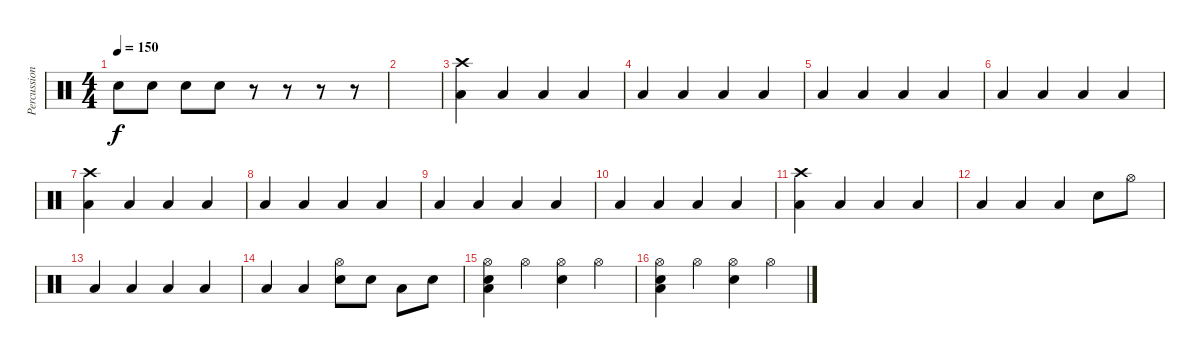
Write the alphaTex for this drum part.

\track ("Percussion" "Percussion") {instrument percussion}
\staff {score}
\articulation defaults
\ts (4 4)
\tempo 150
\clef neutral
\ks c "Electric Snare (hit)".8{dy f} "Electric Snare (hit)".8 "Electric Snare (hit)".8 "Electric Snare (hit)".8
r.8 r.8 r.8 r.8 |
|
("Low Tom (hit)" "Crash high (hit)").4 "Low Tom (hit)".4 "Low Tom (hit)".4 "Low Tom (hit)".4 |
"Low Tom (hit)".4 "Low Tom (hit)".4 "Low Tom (hit)".4 "Low Tom (hit)".4 |
"Low Tom (hit)".4 "Low Tom (hit)".4 "Low Tom (hit)".4 "Low Tom (hit)".4 |
"Low Tom (hit)".4 "Low Tom (hit)".4 "Low Tom (hit)".4 "Low Tom (hit)".4 |
("Low Tom (hit)" "Crash high (hit)").4 "Low Tom (hit)".4 "Low Tom (hit)".4 "Low Tom (hit)".4 |
"Low Tom (hit)".4 "Low Tom (hit)".4 "Low Tom (hit)".4 "Low Tom (hit)".4 |
"Low Tom (hit)".4 "Low Tom (hit)".4 "Low Tom (hit)".4 "Low Tom (hit)".4 |
"Low Tom (hit)".4 "Low Tom (hit)".4 "Low Tom (hit)".4 "Low Tom (hit)".4 |
("Low Tom (hit)" "Crash high (hit)").4 "Low Tom (hit)".4 "Low Tom (hit)".4 "Low Tom (hit)".4 |
"Low Tom (hit)".4 "Low Tom (hit)".4 "Low Tom (hit)".4 "Electric Snare (hit)".8 "Hi-Hat (open)".8 |
"Low Tom (hit)".4 "Low Tom (hit)".4 "Low Tom (hit)".4 "Low Tom (hit)".4 |
"Low Tom (hit)".4 "Low Tom (hit)".4 ("Electric Snare (hit)" "Hi-Hat (open)").8 "Electric Snare (hit)".8 "Low Tom (hit)".8 "Electric Snare (hit)".8 |
("Hi-Hat (open)" "Low Tom (hit)" "Electric Snare (hit)").4 "Hi-Hat (open)".4 ("Hi-Hat (open)" "Electric Snare (hit)").4 "Hi-Hat (open)".4 |
("Hi-Hat (open)" "Low Tom (hit)" "Electric Snare (hit)").4 "Hi-Hat (open)".4 ("Hi-Hat (open)" "Electric Snare (hit)").4 "Hi-Hat (open)".4
